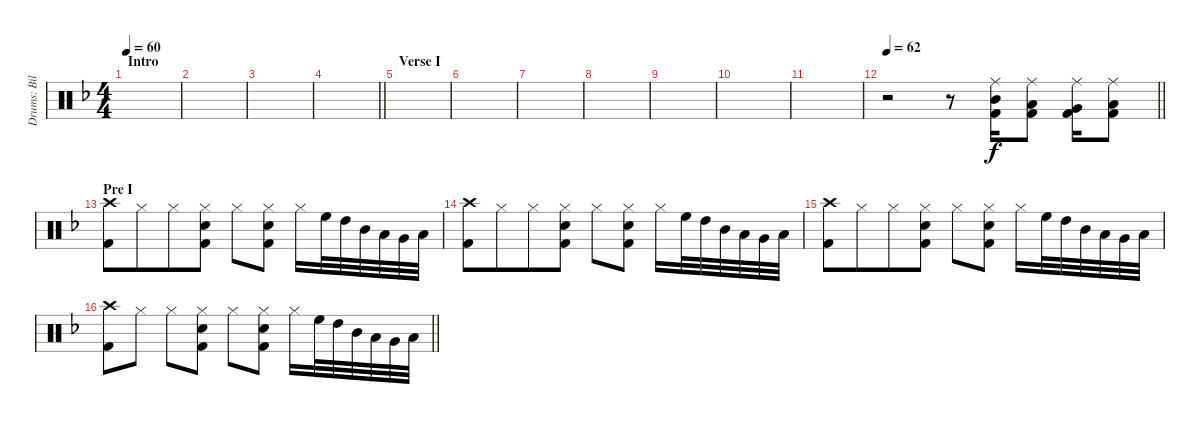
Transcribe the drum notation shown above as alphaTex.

\track ("Drums: Bill" "Drums: Bil") {instrument percussion}
\staff {score}
\articulation defaults
\ts (4 4)
\section ("" "Intro")
\tempo 60
\clef neutral
\ks f
|
|
|
\barLineRight lightlight
|
\section ("" "Verse I")
|
|
|
|
|
|
|
\tempo 62
\barLineRight lightlight
r.2 r.8 ("Ride (middle)" "Mid Tom (hit)" "Kick (hit) 2").16 ("Ride (middle)" "Low Tom (hit)" "Kick (hit) 2").8 ("Ride (middle)" "Very Low Tom (hit)" "Kick (hit) 2").16 ("Ride (middle)" "Low Floor Tom (hit)" "Kick (hit) 2").8 |
\section ("" "Pre I")
("Crash high (hit)" "Kick (hit) 2").8 "Hi-Hat (closed)".8{beam merge} "Hi-Hat (closed)".8 ("Hi-Hat (closed)" "Snare (hit) 2" "Kick (hit) 2").8 "Hi-Hat (closed)".8 ("Hi-Hat (closed)" "Snare (hit) 2" "Kick (hit) 2").8 "Hi-Hat (closed)".16 "High Floor Tom (hit)".32 "High Tom (hit)".32 "Mid Tom (hit)".32 "Low Tom (hit)".32 "Very Low Tom (hit)".32 "Low Floor Tom (hit)".32 |
("Crash high (hit)" "Kick (hit) 2").8 "Hi-Hat (closed)".8{beam merge} "Hi-Hat (closed)".8 ("Hi-Hat (closed)" "Snare (hit) 2" "Kick (hit) 2").8 "Hi-Hat (closed)".8 ("Hi-Hat (closed)" "Snare (hit) 2" "Kick (hit) 2").8 "Hi-Hat (closed)".16 "High Floor Tom (hit)".32 "High Tom (hit)".32 "Mid Tom (hit)".32 "Low Tom (hit)".32 "Very Low Tom (hit)".32 "Low Floor Tom (hit)".32 |
("Crash high (hit)" "Kick (hit) 2").8 "Hi-Hat (closed)".8{beam merge} "Hi-Hat (closed)".8 ("Hi-Hat (closed)" "Snare (hit) 2" "Kick (hit) 2").8 "Hi-Hat (closed)".8 ("Hi-Hat (closed)" "Snare (hit) 2" "Kick (hit) 2").8 "Hi-Hat (closed)".16 "High Floor Tom (hit)".32 "High Tom (hit)".32 "Mid Tom (hit)".32 "Low Tom (hit)".32 "Very Low Tom (hit)".32 "Low Floor Tom (hit)".32 |
\barLineRight lightlight
("Crash high (hit)" "Kick (hit) 2").8 "Hi-Hat (closed)".8 "Hi-Hat (closed)".8 ("Hi-Hat (closed)" "Snare (hit) 2" "Kick (hit) 2").8 "Hi-Hat (closed)".8 ("Hi-Hat (closed)" "Snare (hit) 2" "Kick (hit) 2").8 "Hi-Hat (closed)".16 "High Floor Tom (hit)".32 "High Tom (hit)".32 "Mid Tom (hit)".32 "Low Tom (hit)".32 "Very Low Tom (hit)".32 "Low Floor Tom (hit)".32
